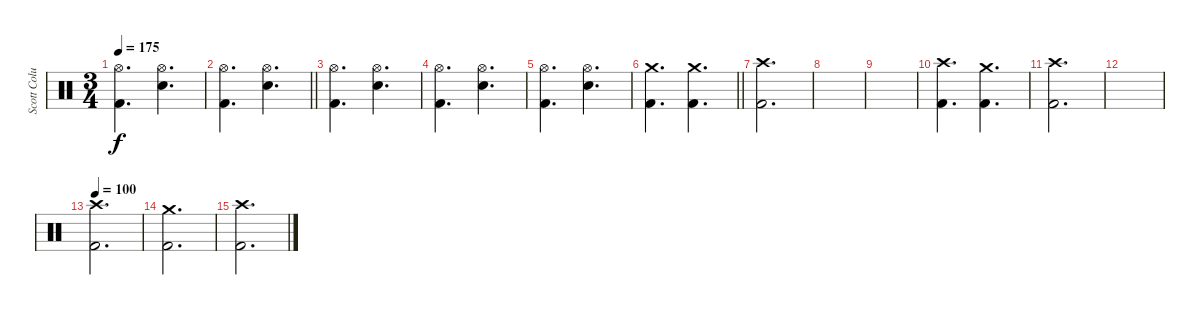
\track ("Scott Columbus" "Scott Colu") {instrument percussion}
\staff {score}
\articulation defaults
\ts (3 4)
\tempo 175
\clef neutral
\ks c
("Kick (hit) 2" "Hi-Hat (open)").4{d dy f} ("Snare (hit) 2" "Hi-Hat (open)").4{d} |
\barLineRight lightlight
("Kick (hit) 2" "Hi-Hat (open)").4{d} ("Snare (hit) 2" "Hi-Hat (open)").4{d} |
("Kick (hit) 2" "Hi-Hat (open)").4{d} ("Snare (hit) 2" "Hi-Hat (open)").4{d} |
("Kick (hit) 2" "Hi-Hat (open)").4{d} ("Snare (hit) 2" "Hi-Hat (open)").4{d} |
("Kick (hit) 2" "Hi-Hat (open)").4{d} ("Snare (hit) 2" "Hi-Hat (open)").4{d} |
\barLineRight lightlight
("Kick (hit) 2" "Crash medium (hit)").4{d} ("Kick (hit) 2" "Crash medium (hit)").4{d} |
("Kick (hit) 2" "Crash high (hit)").2{d} |
|
|
("Kick (hit) 2" "Crash high (hit)").4{d} ("Kick (hit) 2" "Crash medium (hit)").4{d} |
("Kick (hit) 2" "Crash high (hit)").2{d} |
|
\tempo 100
("Kick (hit) 2" "Crash high (hit)").2{d} |
("Kick (hit) 2" "Crash medium (hit)").2{d} |
("Kick (hit) 2" "Crash high (hit)").2{d}
